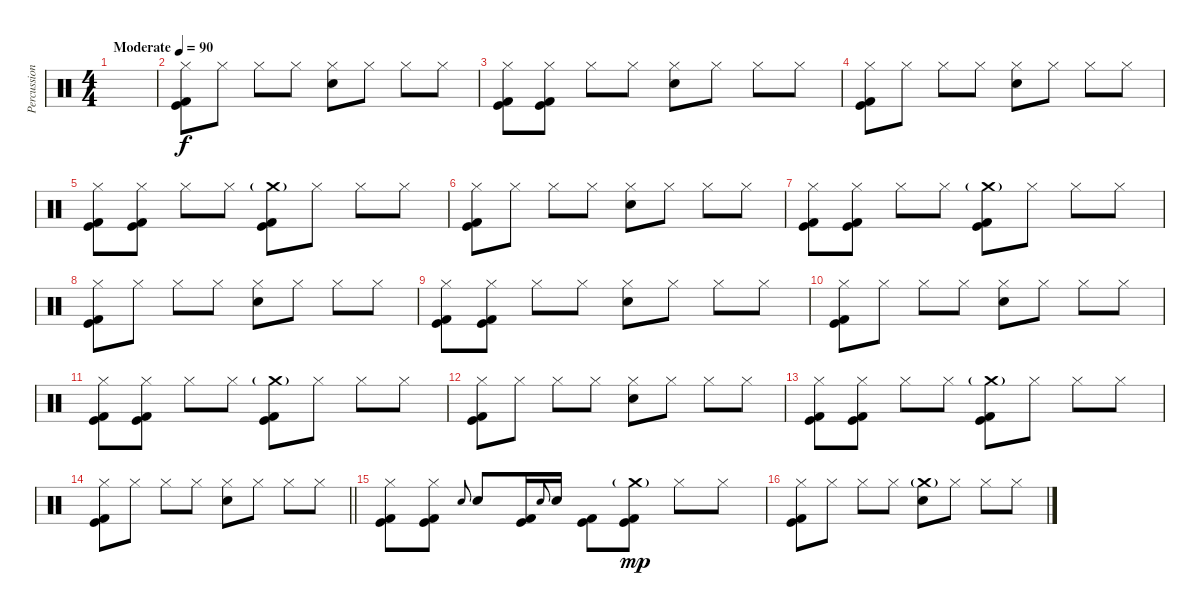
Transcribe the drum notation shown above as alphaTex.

\track ("Percussion" "Percussion") {instrument percussion}
\staff {score}
\articulation defaults
\ts (4 4)
\tempo (90 "Moderate")
\clef neutral
\ks c
|
("Hi-Hat (closed)" "Kick (hit)" "Kick (hit) 2").8 "Hi-Hat (closed)".8 "Hi-Hat (closed)".8 "Hi-Hat (closed)".8 ("Hi-Hat (closed)" "Electric Snare (hit)").8 "Hi-Hat (closed)".8 "Hi-Hat (closed)".8 "Hi-Hat (closed)".8 |
("Hi-Hat (closed)" "Kick (hit)" "Kick (hit) 2").8 ("Hi-Hat (closed)" "Kick (hit)" "Kick (hit) 2").8 "Hi-Hat (closed)".8 "Hi-Hat (closed)".8 ("Hi-Hat (closed)" "Electric Snare (hit)").8 "Hi-Hat (closed)".8 "Hi-Hat (closed)".8 "Hi-Hat (closed)".8 |
("Hi-Hat (closed)" "Kick (hit)" "Kick (hit) 2").8 "Hi-Hat (closed)".8 "Hi-Hat (closed)".8 "Hi-Hat (closed)".8 ("Hi-Hat (closed)" "Electric Snare (hit)").8 "Hi-Hat (closed)".8 "Hi-Hat (closed)".8 "Hi-Hat (closed)".8 |
("Hi-Hat (closed)" "Kick (hit)" "Kick (hit) 2").8 ("Hi-Hat (closed)" "Kick (hit)" "Kick (hit) 2").8 "Hi-Hat (closed)".8 "Hi-Hat (closed)".8 ("Crash medium (hit)"{g} "Kick (hit)" "Kick (hit) 2").8 "Hi-Hat (closed)".8 "Hi-Hat (closed)".8 "Hi-Hat (closed)".8 |
("Hi-Hat (closed)" "Kick (hit)" "Kick (hit) 2").8 "Hi-Hat (closed)".8 "Hi-Hat (closed)".8 "Hi-Hat (closed)".8 ("Hi-Hat (closed)" "Electric Snare (hit)").8 "Hi-Hat (closed)".8 "Hi-Hat (closed)".8 "Hi-Hat (closed)".8 |
("Hi-Hat (closed)" "Kick (hit)" "Kick (hit) 2").8 ("Hi-Hat (closed)" "Kick (hit)" "Kick (hit) 2").8 "Hi-Hat (closed)".8 "Hi-Hat (closed)".8 ("Crash medium (hit)"{g} "Kick (hit)" "Kick (hit) 2").8 "Hi-Hat (closed)".8 "Hi-Hat (closed)".8 "Hi-Hat (closed)".8 |
("Hi-Hat (closed)" "Kick (hit)" "Kick (hit) 2").8 "Hi-Hat (closed)".8 "Hi-Hat (closed)".8 "Hi-Hat (closed)".8 ("Hi-Hat (closed)" "Electric Snare (hit)").8 "Hi-Hat (closed)".8 "Hi-Hat (closed)".8 "Hi-Hat (closed)".8 |
("Hi-Hat (closed)" "Kick (hit)" "Kick (hit) 2").8 ("Hi-Hat (closed)" "Kick (hit)" "Kick (hit) 2").8 "Hi-Hat (closed)".8 "Hi-Hat (closed)".8 ("Hi-Hat (closed)" "Electric Snare (hit)").8 "Hi-Hat (closed)".8 "Hi-Hat (closed)".8 "Hi-Hat (closed)".8 |
("Hi-Hat (closed)" "Kick (hit)" "Kick (hit) 2").8 "Hi-Hat (closed)".8 "Hi-Hat (closed)".8 "Hi-Hat (closed)".8 ("Hi-Hat (closed)" "Electric Snare (hit)").8 "Hi-Hat (closed)".8 "Hi-Hat (closed)".8 "Hi-Hat (closed)".8 |
("Hi-Hat (closed)" "Kick (hit)" "Kick (hit) 2").8 ("Hi-Hat (closed)" "Kick (hit)" "Kick (hit) 2").8 "Hi-Hat (closed)".8 "Hi-Hat (closed)".8 ("Crash medium (hit)"{g} "Kick (hit)" "Kick (hit) 2").8 "Hi-Hat (closed)".8 "Hi-Hat (closed)".8 "Hi-Hat (closed)".8 |
("Hi-Hat (closed)" "Kick (hit)" "Kick (hit) 2").8 "Hi-Hat (closed)".8 "Hi-Hat (closed)".8 "Hi-Hat (closed)".8 ("Hi-Hat (closed)" "Electric Snare (hit)").8 "Hi-Hat (closed)".8 "Hi-Hat (closed)".8 "Hi-Hat (closed)".8 |
("Hi-Hat (closed)" "Kick (hit)" "Kick (hit) 2").8 ("Hi-Hat (closed)" "Kick (hit)" "Kick (hit) 2").8 "Hi-Hat (closed)".8 "Hi-Hat (closed)".8 ("Crash medium (hit)"{g} "Kick (hit)" "Kick (hit) 2").8 "Hi-Hat (closed)".8 "Hi-Hat (closed)".8 "Hi-Hat (closed)".8 |
\barLineRight lightlight
("Hi-Hat (closed)" "Kick (hit)" "Kick (hit) 2").8 "Hi-Hat (closed)".8 "Hi-Hat (closed)".8 "Hi-Hat (closed)".8 ("Hi-Hat (closed)" "Electric Snare (hit)").8 "Hi-Hat (closed)".8 "Hi-Hat (closed)".8 "Hi-Hat (closed)".8 |
\section ("" "")
("Hi-Hat (closed)" "Kick (hit)" "Kick (hit) 2").8 ("Hi-Hat (closed)" "Kick (hit)" "Kick (hit) 2").8 "Electric Snare (hit)".8{gr onbeat dy f} "Electric Snare (hit)".8 ("Kick (hit)" "Kick (hit) 2").16 "Electric Snare (hit)".8{gr onbeat} "Electric Snare (hit)".16 ("Kick (hit)" "Kick (hit) 2").8 ("Crash medium (hit)"{g} "Kick (hit)" "Kick (hit) 2").8{dy mp} "Hi-Hat (closed)".8 "Hi-Hat (closed)".8 |
("Hi-Hat (closed)" "Kick (hit)" "Kick (hit) 2").8 "Hi-Hat (closed)".8 "Hi-Hat (closed)".8 "Hi-Hat (closed)".8 ("Crash medium (hit)"{g} "Electric Snare (hit)").8 "Hi-Hat (closed)".8 "Hi-Hat (closed)".8 "Hi-Hat (closed)".8
